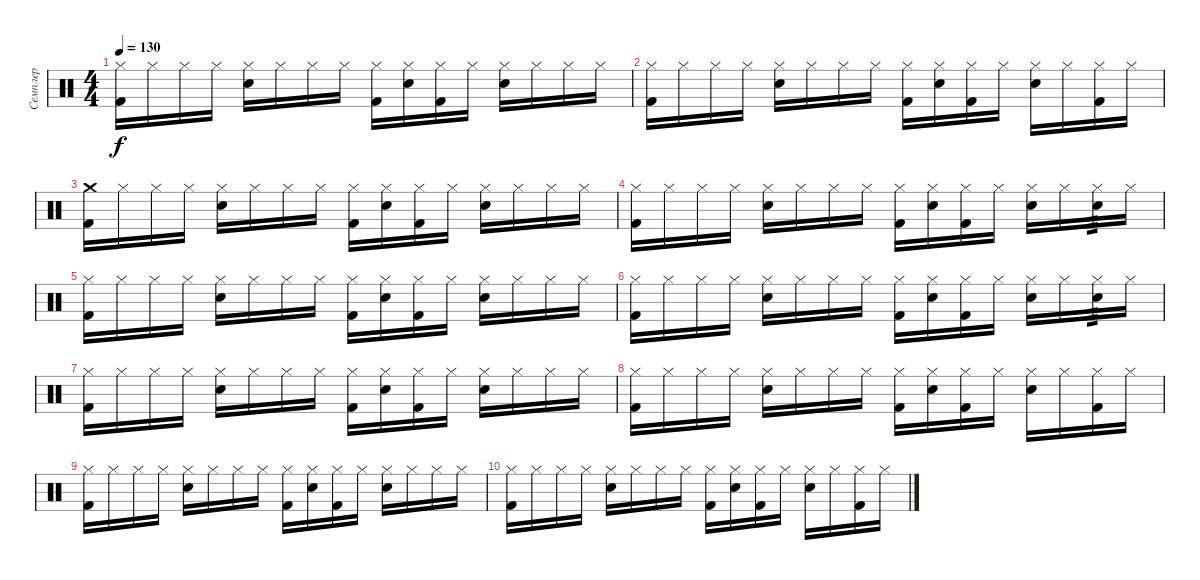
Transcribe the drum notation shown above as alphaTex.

\track ("Семплер" "Семплер") {instrument percussion}
\staff {score}
\articulation defaults
\ts (4 4)
\tempo 130
\clef neutral
\ks c
("Hi-Hat (closed)" "Kick (hit) 2").16{dy f} "Hi-Hat (closed)".16 "Hi-Hat (closed)".16 "Hi-Hat (closed)".16 ("Hi-Hat (closed)" "Snare (hit) 2").16 "Hi-Hat (closed)".16 "Hi-Hat (closed)".16 "Hi-Hat (closed)".16 ("Hi-Hat (closed)" "Kick (hit) 2").16 ("Hi-Hat (closed)" "Snare (hit) 2").16 ("Hi-Hat (closed)" "Kick (hit) 2").16 "Hi-Hat (closed)".16 ("Hi-Hat (closed)" "Snare (hit) 2").16 "Hi-Hat (closed)".16 "Hi-Hat (closed)".16 "Hi-Hat (closed)".16 |
("Hi-Hat (closed)" "Kick (hit) 2").16 "Hi-Hat (closed)".16 "Hi-Hat (closed)".16 "Hi-Hat (closed)".16 ("Hi-Hat (closed)" "Snare (hit) 2").16 "Hi-Hat (closed)".16 "Hi-Hat (closed)".16 "Hi-Hat (closed)".16 ("Hi-Hat (closed)" "Kick (hit) 2").16 ("Hi-Hat (closed)" "Snare (hit) 2").16 ("Hi-Hat (closed)" "Kick (hit) 2").16 "Hi-Hat (closed)".16 ("Hi-Hat (closed)" "Snare (hit) 2").16 "Hi-Hat (closed)".16 ("Hi-Hat (closed)" "Kick (hit) 2").16 "Hi-Hat (closed)".16 |
("Crash medium (hit)" "Kick (hit) 2").16 "Hi-Hat (closed)".16 "Hi-Hat (closed)".16 "Hi-Hat (closed)".16 ("Hi-Hat (closed)" "Snare (hit) 2").16 "Hi-Hat (closed)".16 "Hi-Hat (closed)".16 "Hi-Hat (closed)".16 ("Hi-Hat (closed)" "Kick (hit) 2").16 ("Hi-Hat (closed)" "Snare (hit) 2").16 ("Hi-Hat (closed)" "Kick (hit) 2").16 "Hi-Hat (closed)".16 ("Hi-Hat (closed)" "Snare (hit) 2").16 "Hi-Hat (closed)".16 "Hi-Hat (closed)".16 "Hi-Hat (closed)".16 |
("Hi-Hat (closed)" "Kick (hit) 2").16 "Hi-Hat (closed)".16 "Hi-Hat (closed)".16 "Hi-Hat (closed)".16 ("Hi-Hat (closed)" "Snare (hit) 2").16 "Hi-Hat (closed)".16 "Hi-Hat (closed)".16 "Hi-Hat (closed)".16 ("Hi-Hat (closed)" "Kick (hit) 2").16 ("Hi-Hat (closed)" "Snare (hit) 2").16 ("Hi-Hat (closed)" "Kick (hit) 2").16 "Hi-Hat (closed)".16 ("Hi-Hat (closed)" "Snare (hit) 2").16 "Hi-Hat (closed)".16 ("Hi-Hat (closed)" "Snare (hit) 2").16{tp 3} "Hi-Hat (closed)".16 |
("Hi-Hat (closed)" "Kick (hit) 2").16 "Hi-Hat (closed)".16 "Hi-Hat (closed)".16 "Hi-Hat (closed)".16 ("Hi-Hat (closed)" "Snare (hit) 2").16 "Hi-Hat (closed)".16 "Hi-Hat (closed)".16 "Hi-Hat (closed)".16 ("Hi-Hat (closed)" "Kick (hit) 2").16 ("Hi-Hat (closed)" "Snare (hit) 2").16 ("Hi-Hat (closed)" "Kick (hit) 2").16 "Hi-Hat (closed)".16 ("Hi-Hat (closed)" "Snare (hit) 2").16 "Hi-Hat (closed)".16 "Hi-Hat (closed)".16 "Hi-Hat (closed)".16 |
("Hi-Hat (closed)" "Kick (hit) 2").16 "Hi-Hat (closed)".16 "Hi-Hat (closed)".16 "Hi-Hat (closed)".16 ("Hi-Hat (closed)" "Snare (hit) 2").16 "Hi-Hat (closed)".16 "Hi-Hat (closed)".16 "Hi-Hat (closed)".16 ("Hi-Hat (closed)" "Kick (hit) 2").16 ("Hi-Hat (closed)" "Snare (hit) 2").16 ("Hi-Hat (closed)" "Kick (hit) 2").16 "Hi-Hat (closed)".16 ("Hi-Hat (closed)" "Snare (hit) 2").16 "Hi-Hat (closed)".16 ("Hi-Hat (closed)" "Snare (hit) 2").16{tp 3} "Hi-Hat (closed)".16 |
("Hi-Hat (closed)" "Kick (hit) 2").16 "Hi-Hat (closed)".16 "Hi-Hat (closed)".16 "Hi-Hat (closed)".16 ("Hi-Hat (closed)" "Snare (hit) 2").16 "Hi-Hat (closed)".16 "Hi-Hat (closed)".16 "Hi-Hat (closed)".16 ("Hi-Hat (closed)" "Kick (hit) 2").16 ("Hi-Hat (closed)" "Snare (hit) 2").16 ("Hi-Hat (closed)" "Kick (hit) 2").16 "Hi-Hat (closed)".16 ("Hi-Hat (closed)" "Snare (hit) 2").16 "Hi-Hat (closed)".16 "Hi-Hat (closed)".16 "Hi-Hat (closed)".16 |
("Hi-Hat (closed)" "Kick (hit) 2").16 "Hi-Hat (closed)".16 "Hi-Hat (closed)".16 "Hi-Hat (closed)".16 ("Hi-Hat (closed)" "Snare (hit) 2").16 "Hi-Hat (closed)".16 "Hi-Hat (closed)".16 "Hi-Hat (closed)".16 ("Hi-Hat (closed)" "Kick (hit) 2").16 ("Hi-Hat (closed)" "Snare (hit) 2").16 ("Hi-Hat (closed)" "Kick (hit) 2").16 "Hi-Hat (closed)".16 ("Hi-Hat (closed)" "Snare (hit) 2").16 "Hi-Hat (closed)".16 ("Hi-Hat (closed)" "Kick (hit) 2").16 "Hi-Hat (closed)".16 |
("Hi-Hat (closed)" "Kick (hit) 2").16 "Hi-Hat (closed)".16 "Hi-Hat (closed)".16 "Hi-Hat (closed)".16 ("Hi-Hat (closed)" "Snare (hit) 2").16 "Hi-Hat (closed)".16 "Hi-Hat (closed)".16 "Hi-Hat (closed)".16 ("Hi-Hat (closed)" "Kick (hit) 2").16 ("Hi-Hat (closed)" "Snare (hit) 2").16 ("Hi-Hat (closed)" "Kick (hit) 2").16 "Hi-Hat (closed)".16 ("Hi-Hat (closed)" "Snare (hit) 2").16 "Hi-Hat (closed)".16 "Hi-Hat (closed)".16 "Hi-Hat (closed)".16 |
("Hi-Hat (closed)" "Kick (hit) 2").16 "Hi-Hat (closed)".16 "Hi-Hat (closed)".16 "Hi-Hat (closed)".16 ("Hi-Hat (closed)" "Snare (hit) 2").16 "Hi-Hat (closed)".16 "Hi-Hat (closed)".16 "Hi-Hat (closed)".16 ("Hi-Hat (closed)" "Kick (hit) 2").16 ("Hi-Hat (closed)" "Snare (hit) 2").16 ("Hi-Hat (closed)" "Kick (hit) 2").16 "Hi-Hat (closed)".16 ("Hi-Hat (closed)" "Snare (hit) 2").16 "Hi-Hat (closed)".16 ("Hi-Hat (closed)" "Kick (hit) 2").16 "Hi-Hat (closed)".16
